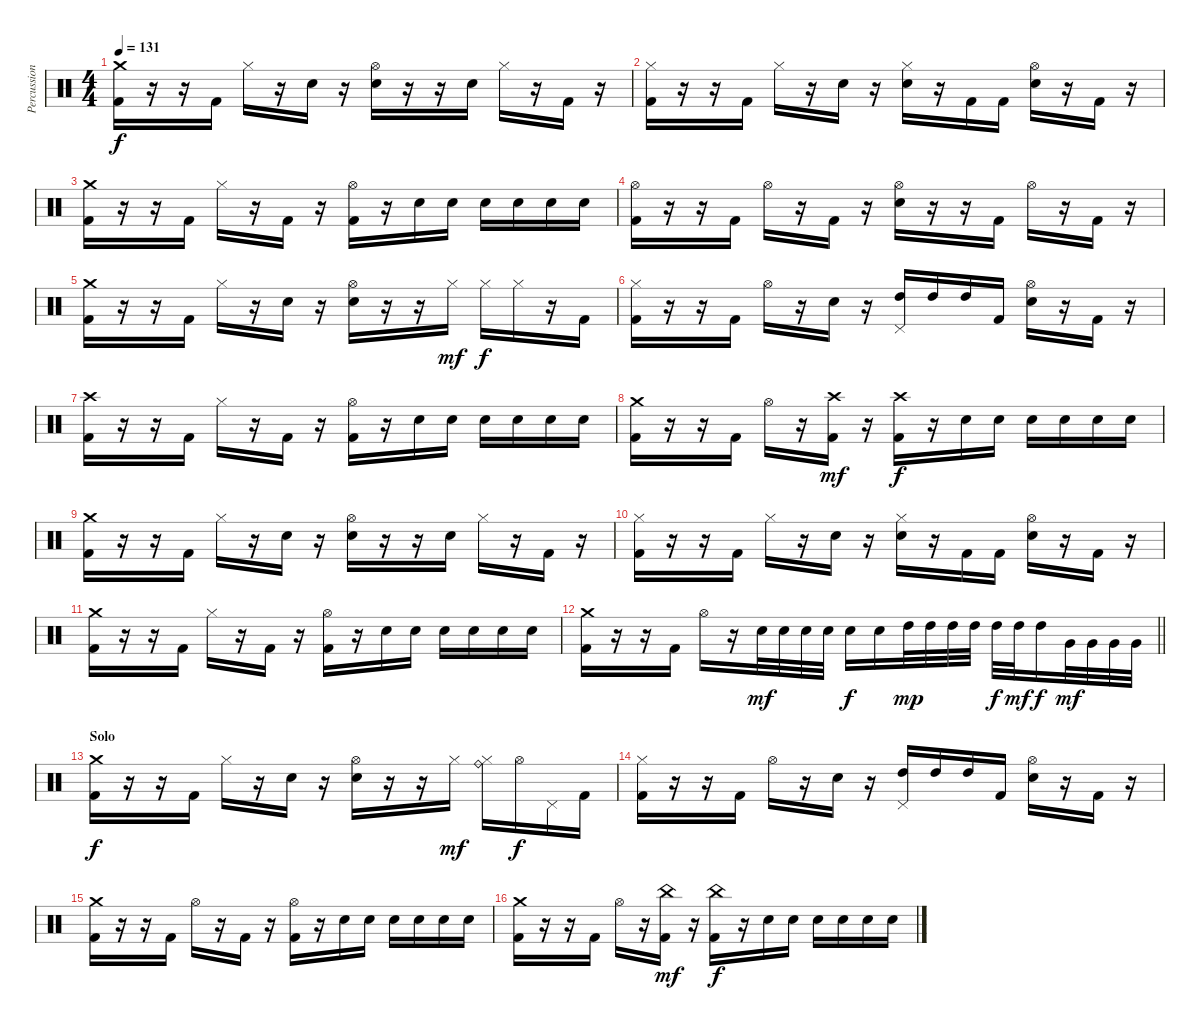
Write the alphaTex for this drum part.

\track ("Percussion" "Percussion") {instrument percussion}
\staff {score}
\articulation defaults
\ts (4 4)
\tempo 131
\clef neutral
\ks c
("Crash medium (hit)" "Kick (hit) 2").16{dy f} r.16 r.16 "Kick (hit) 2".16 "Hi-Hat (closed)".16 r.16 "Snare (hit) 2".16 r.16 ("Hi-Hat (open)" "Snare (hit) 2").16 r.16 r.16 "Snare (hit) 2".16 "Hi-Hat (closed)".16 r.16 "Kick (hit) 2".16 r.16 |
("Hi-Hat (closed)" "Kick (hit) 2").16 r.16 r.16 "Kick (hit) 2".16 "Hi-Hat (closed)".16 r.16 "Snare (hit) 2".16 r.16 ("Hi-Hat (closed)" "Snare (hit) 2").16 r.16 "Kick (hit) 2".16 "Kick (hit) 2".16 ("Hi-Hat (open)" "Snare (hit) 2").16 r.16 "Kick (hit) 2".16 r.16 |
("Crash medium (hit)" "Kick (hit) 2").16 r.16 r.16 "Kick (hit) 2".16 "Hi-Hat (closed)".16 r.16 "Kick (hit) 2".16 r.16 ("Hi-Hat (open)" "Kick (hit) 2").16 r.16 "Snare (hit) 2".16 "Snare (hit) 2".16 "Snare (hit) 2".16 "Snare (hit) 2".16 "Snare (hit) 2".16 "Snare (hit) 2".16 |
("Hi-Hat (open)" "Kick (hit) 2").16 r.16 r.16 "Kick (hit) 2".16 "Hi-Hat (open)".16 r.16 "Kick (hit) 2".16 r.16 ("Hi-Hat (open)" "Snare (hit) 2").16 r.16 r.16 "Kick (hit) 2".16 "Hi-Hat (open)".16 r.16 "Kick (hit) 2".16 r.16 |
("Crash medium (hit)" "Kick (hit) 2").16 r.16 r.16 "Kick (hit) 2".16 "Hi-Hat (closed)".16 r.16 "Snare (hit) 2".16 r.16 ("Hi-Hat (open)" "Snare (hit) 2").16 r.16 r.16 "Hi-Hat (closed)".16{dy mf} "Hi-Hat (closed)".16{dy f} "Hi-Hat (closed)".16 r.16 "Kick (hit) 2".16 |
("Hi-Hat (closed)" "Kick (hit) 2").16 r.16 r.16 "Kick (hit) 2".16 "Hi-Hat (open)".16 r.16 "Snare (hit) 2".16 r.16 ("Pedal Hi-Hat (hit)" "High Tom (hit)").16 "High Tom (hit)".16 "High Tom (hit)".16 "Kick (hit) 2".16 ("Hi-Hat (open)" "Snare (hit) 2").16 r.16 "Kick (hit) 2".16 r.16 |
("Crash high (hit)" "Kick (hit) 2").16 r.16 r.16 "Kick (hit) 2".16 "Hi-Hat (closed)".16 r.16 "Kick (hit) 2".16 r.16 ("Hi-Hat (open)" "Kick (hit) 2").16 r.16 "Snare (hit) 2".16 "Snare (hit) 2".16 "Snare (hit) 2".16 "Snare (hit) 2".16 "Snare (hit) 2".16 "Snare (hit) 2".16 |
("Crash medium (hit)" "Kick (hit) 2").16 r.16 r.16 "Kick (hit) 2".16 "Hi-Hat (open)".16 r.16 ("Crash high (hit)" "Kick (hit) 2").16{dy mf} r.16 ("Crash high (hit)" "Kick (hit) 2").16{dy f} r.16 "Snare (hit) 2".16 "Snare (hit) 2".16 "Snare (hit) 2".16 "Snare (hit) 2".16 "Snare (hit) 2".16 "Snare (hit) 2".16 |
("Crash medium (hit)" "Kick (hit) 2").16 r.16 r.16 "Kick (hit) 2".16 "Hi-Hat (closed)".16 r.16 "Snare (hit) 2".16 r.16 ("Hi-Hat (open)" "Snare (hit) 2").16 r.16 r.16 "Snare (hit) 2".16 "Hi-Hat (closed)".16 r.16 "Kick (hit) 2".16 r.16 |
("Hi-Hat (closed)" "Kick (hit) 2").16 r.16 r.16 "Kick (hit) 2".16 "Hi-Hat (closed)".16 r.16 "Snare (hit) 2".16 r.16 ("Hi-Hat (closed)" "Snare (hit) 2").16 r.16 "Kick (hit) 2".16 "Kick (hit) 2".16 ("Hi-Hat (open)" "Snare (hit) 2").16 r.16 "Kick (hit) 2".16 r.16 |
("Crash medium (hit)" "Kick (hit) 2").16 r.16 r.16 "Kick (hit) 2".16 "Hi-Hat (closed)".16 r.16 "Kick (hit) 2".16 r.16 ("Hi-Hat (open)" "Kick (hit) 2").16 r.16 "Snare (hit) 2".16 "Snare (hit) 2".16 "Snare (hit) 2".16 "Snare (hit) 2".16 "Snare (hit) 2".16 "Snare (hit) 2".16 |
\barLineRight lightlight
("Crash medium (hit)" "Kick (hit) 2").16 r.16 r.16 "Kick (hit) 2".16 "Hi-Hat (open)".16 r.16 "Snare (hit) 2".32{dy mf} "Snare (hit) 2".32 "Snare (hit) 2".32 "Snare (hit) 2".32 "Snare (hit) 2".16{dy f} "Snare (hit) 2".16 "High Tom (hit)".32{dy mp} "High Tom (hit)".32 "High Tom (hit)".32 "High Tom (hit)".32 "High Tom (hit)".32{dy f} "High Tom (hit)".32{dy mf} "High Tom (hit)".16{dy f} "Very Low Tom (hit)".32{dy mf} "Very Low Tom (hit)".32 "Very Low Tom (hit)".32 "Very Low Tom (hit)".32 |
\section ("" "Solo")
("Crash medium (hit)" "Kick (hit) 2").16{dy f} r.16 r.16 "Kick (hit) 2".16 "Hi-Hat (closed)".16 r.16 "Snare (hit) 2".16 r.16 ("Hi-Hat (open)" "Snare (hit) 2").16 r.16 r.16 "Hi-Hat (closed)".16{dy mf} ("Ride (bell)" "Hi-Hat (closed)").16 "Hi-Hat (open)".16{dy f} "Pedal Hi-Hat (hit)".16 "Kick (hit) 2".16 |
("Hi-Hat (closed)" "Kick (hit) 2").16 r.16 r.16 "Kick (hit) 2".16 "Hi-Hat (open)".16 r.16 "Snare (hit) 2".16 r.16 ("Pedal Hi-Hat (hit)" "High Tom (hit)").16 "High Tom (hit)".16 "High Tom (hit)".16 "Kick (hit) 2".16 ("Hi-Hat (open)" "Snare (hit) 2").16 r.16 "Kick (hit) 2".16 r.16 |
("Crash medium (hit)" "Kick (hit) 2").16 r.16 r.16 "Kick (hit) 2".16 "Hi-Hat (open)".16 r.16 "Kick (hit) 2".16 r.16 ("Hi-Hat (open)" "Kick (hit) 2").16 r.16 "Snare (hit) 2".16 "Snare (hit) 2".16 "Snare (hit) 2".16 "Snare (hit) 2".16 "Snare (hit) 2".16 "Snare (hit) 2".16 |
("Crash medium (hit)" "Kick (hit) 2").16 r.16 r.16 "Kick (hit) 2".16 "Hi-Hat (open)".16 r.16 ("China (hit)" "Kick (hit) 2").16{dy mf} r.16 ("China (hit)" "Kick (hit) 2").16{dy f} r.16 "Snare (hit) 2".16 "Snare (hit) 2".16 "Snare (hit) 2".16 "Snare (hit) 2".16 "Snare (hit) 2".16 "Snare (hit) 2".16
